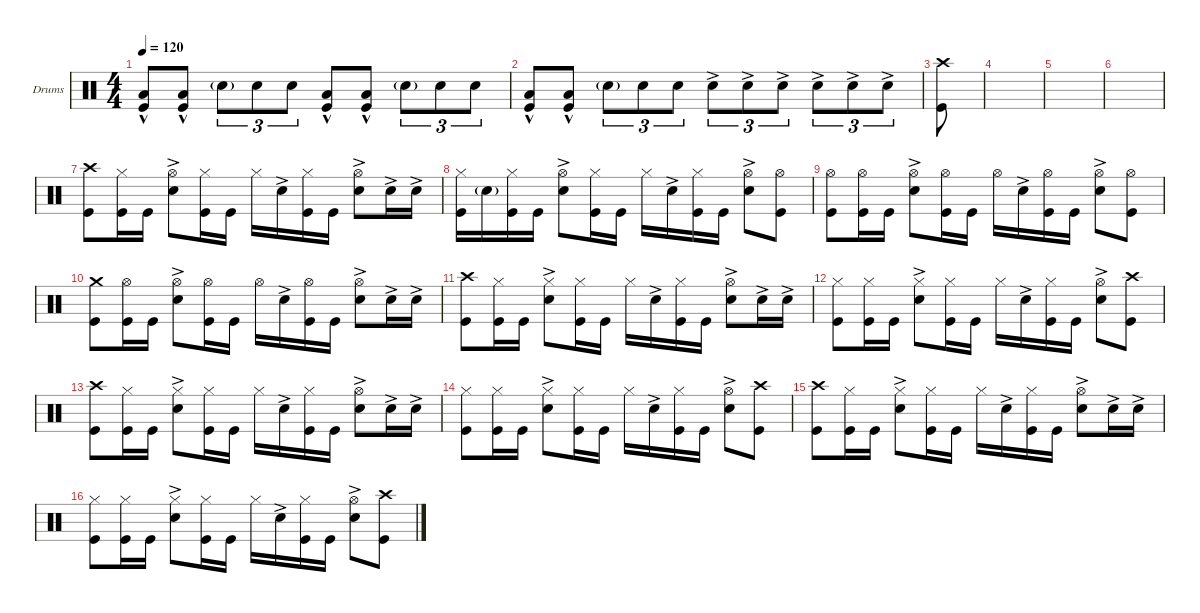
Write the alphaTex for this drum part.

\defaultSystemsLayout 4
\hideDynamics
\bracketExtendMode groupsimilarinstruments
\firstSystemTrackNameOrientation horizontal
\otherSystemsTrackNameOrientation horizontal
\track ("Drumkit" "Drums") {instrument percussion}
\staff {score}
\articulation defaults
\ts (4 4)
\tempo 120
\clef neutral
\ks c
("Kick (hit)"{hac} "Low Tom (hit)").8{dy f} ("Kick (hit)"{hac} "Low Tom (hit)").8 "Snare (hit) 2"{g}.8{tu (3 2) dy mf} "Snare (hit) 2".8{tu (3 2) dy f} "Snare (hit) 2".8{tu (3 2)} ("Kick (hit)"{hac} "Low Tom (hit)").8 ("Kick (hit)"{hac} "Low Tom (hit)").8 "Snare (hit) 2"{g}.8{tu (3 2) dy mf} "Snare (hit) 2".8{tu (3 2) dy f} "Snare (hit) 2".8{tu (3 2)} |
("Kick (hit)"{hac} "Low Tom (hit)").8 ("Kick (hit)"{hac} "Low Tom (hit)").8 "Snare (hit) 2"{g}.8{tu (3 2) dy mf} "Snare (hit) 2".8{tu (3 2) dy f} "Snare (hit) 2".8{tu (3 2)} "Snare (hit) 2"{ac}.8{tu (3 2)} "Snare (hit) 2"{ac}.8{tu (3 2)} "Snare (hit) 2"{ac}.8{tu (3 2)} "Snare (hit) 2"{ac}.8{tu (3 2)} "Snare (hit) 2"{ac}.8{tu (3 2)} "Snare (hit) 2"{ac}.8{tu (3 2)} |
("Crash high (hit)" "Kick (hit)").8 |
|
|
|
\scale
0.474178 ("Kick (hit)" "Crash high (hit)").8 ("Kick (hit)" "Hi-Hat (closed)").16 "Kick (hit)".16 ("Snare (hit) 2"{ac} "Hi-Hat (open)").8 ("Kick (hit)" "Hi-Hat (closed)").16 "Kick (hit)".16 "Hi-Hat (closed)".16 "Snare (hit) 2"{ac}.16 ("Kick (hit)" "Hi-Hat (closed)").16 "Kick (hit)".16 ("Snare (hit) 2"{ac} "Hi-Hat (open)").8 "Snare (hit) 2"{ac}.16 "Snare (hit) 2"{ac}.16 |
("Kick (hit)" "Hi-Hat (closed)").16 "Snare (hit) 2"{g}.16 ("Kick (hit)" "Hi-Hat (closed)").16 "Kick (hit)".16 ("Snare (hit) 2"{ac} "Hi-Hat (open)").8 ("Kick (hit)" "Hi-Hat (closed)").16 "Kick (hit)".16 "Hi-Hat (closed)".16 "Snare (hit) 2"{ac}.16 ("Kick (hit)" "Hi-Hat (closed)").16 "Kick (hit)".16 ("Snare (hit) 2"{ac} "Hi-Hat (open)").8 ("Kick (hit)" "Hi-Hat (open)").8 |
("Kick (hit)" "Hi-Hat (open)").8 ("Kick (hit)" "Hi-Hat (open)").16 "Kick (hit)".16 ("Snare (hit) 2"{ac} "Hi-Hat (open)").8 ("Kick (hit)" "Hi-Hat (open)").16 "Kick (hit)".16 "Hi-Hat (open)".16 "Snare (hit) 2"{ac}.16 ("Kick (hit)" "Hi-Hat (open)").16 "Kick (hit)".16 ("Snare (hit) 2"{ac} "Hi-Hat (open)").8 ("Kick (hit)" "Hi-Hat (open)").8 |
\scale
0.262911 ("Kick (hit)" "Crash medium (hit)").8 ("Kick (hit)" "Hi-Hat (open)").16 "Kick (hit)".16 ("Snare (hit) 2"{ac} "Hi-Hat (open)").8 ("Kick (hit)" "Hi-Hat (open)").16 "Kick (hit)".16 "Hi-Hat (open)".16 "Snare (hit) 2"{ac}.16 ("Kick (hit)" "Hi-Hat (open)").16 "Kick (hit)".16 ("Snare (hit) 2"{ac} "Hi-Hat (open)").8 "Snare (hit) 2"{ac}.16 "Snare (hit) 2"{ac}.16 |
\scale
0.262911 ("Kick (hit)" "Crash high (hit)").8 ("Kick (hit)" "Hi-Hat (closed)").16 "Kick (hit)".16 ("Snare (hit) 2"{ac} "Hi-Hat (closed)").8 ("Kick (hit)" "Hi-Hat (closed)").16 "Kick (hit)".16 "Hi-Hat (closed)".16 "Snare (hit) 2"{ac}.16 ("Kick (hit)" "Hi-Hat (closed)").16 "Kick (hit)".16 ("Snare (hit) 2"{ac} "Hi-Hat (open)").8 "Snare (hit) 2"{ac}.16 "Snare (hit) 2"{ac}.16 |
("Kick (hit)" "Hi-Hat (closed)").8 ("Kick (hit)" "Hi-Hat (closed)").16 "Kick (hit)".16 ("Snare (hit) 2"{ac} "Hi-Hat (closed)").8 ("Kick (hit)" "Hi-Hat (closed)").16 "Kick (hit)".16 "Hi-Hat (closed)".16 "Snare (hit) 2"{ac}.16 ("Kick (hit)" "Hi-Hat (closed)").16 "Kick (hit)".16 ("Snare (hit) 2"{ac} "Hi-Hat (open)").8 ("Kick (hit)" "Crash high (hit)").8 |
("Kick (hit)" "Crash high (hit)").8 ("Kick (hit)" "Hi-Hat (closed)").16 "Kick (hit)".16 ("Snare (hit) 2"{ac} "Hi-Hat (closed)").8 ("Kick (hit)" "Hi-Hat (closed)").16 "Kick (hit)".16 "Hi-Hat (closed)".16 "Snare (hit) 2"{ac}.16 ("Kick (hit)" "Hi-Hat (closed)").16 "Kick (hit)".16 ("Snare (hit) 2"{ac} "Hi-Hat (open)").8 "Snare (hit) 2"{ac}.16 "Snare (hit) 2"{ac}.16 |
("Kick (hit)" "Hi-Hat (closed)").8 ("Kick (hit)" "Hi-Hat (closed)").16 "Kick (hit)".16 ("Snare (hit) 2"{ac} "Hi-Hat (closed)").8 ("Kick (hit)" "Hi-Hat (closed)").16 "Kick (hit)".16 "Hi-Hat (closed)".16 "Snare (hit) 2"{ac}.16 ("Kick (hit)" "Hi-Hat (closed)").16 "Kick (hit)".16 ("Snare (hit) 2"{ac} "Hi-Hat (open)").8 ("Kick (hit)" "Crash high (hit)").8 |
("Kick (hit)" "Crash high (hit)").8 ("Kick (hit)" "Hi-Hat (closed)").16 "Kick (hit)".16 ("Snare (hit) 2"{ac} "Hi-Hat (closed)").8 ("Kick (hit)" "Hi-Hat (closed)").16 "Kick (hit)".16 "Hi-Hat (closed)".16 "Snare (hit) 2"{ac}.16 ("Kick (hit)" "Hi-Hat (closed)").16 "Kick (hit)".16 ("Snare (hit) 2"{ac} "Hi-Hat (open)").8 "Snare (hit) 2"{ac}.16 "Snare (hit) 2"{ac}.16 |
("Kick (hit)" "Hi-Hat (closed)").8 ("Kick (hit)" "Hi-Hat (closed)").16 "Kick (hit)".16 ("Snare (hit) 2"{ac} "Hi-Hat (closed)").8 ("Kick (hit)" "Hi-Hat (closed)").16 "Kick (hit)".16 "Hi-Hat (closed)".16 "Snare (hit) 2"{ac}.16 ("Kick (hit)" "Hi-Hat (closed)").16 "Kick (hit)".16 ("Snare (hit) 2"{ac} "Hi-Hat (open)").8 ("Kick (hit)" "Crash high (hit)").8
